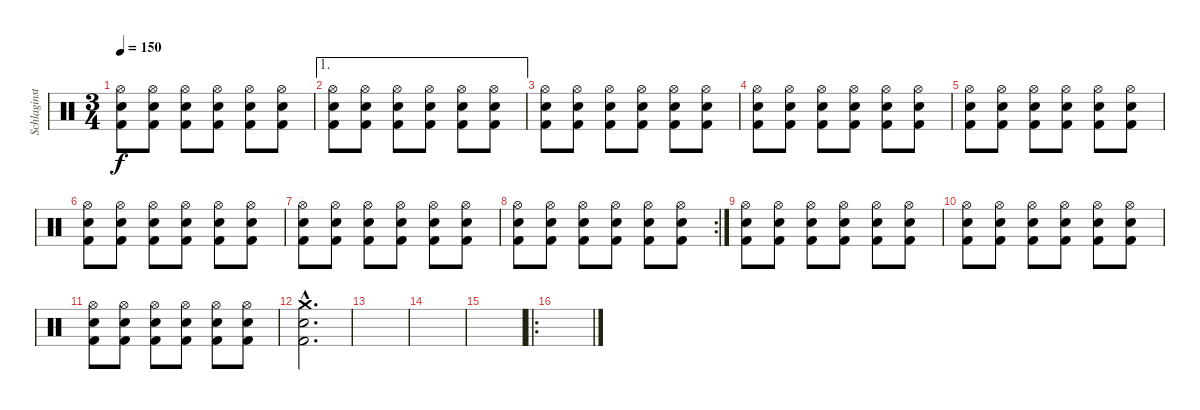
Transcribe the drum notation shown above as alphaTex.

\track ("Schlaginstrumente - Auswahl" "Schlaginst") {instrument percussion}
\staff {score}
\articulation defaults
\ts (3 4)
\tempo 150
\clef neutral
\ks c
("Hi-Hat (open)" "Electric Snare (hit)" "Kick (hit) 2").8{dy f} ("Hi-Hat (open)" "Electric Snare (hit)" "Kick (hit) 2").8 ("Hi-Hat (open)" "Electric Snare (hit)" "Kick (hit) 2").8 ("Hi-Hat (open)" "Electric Snare (hit)" "Kick (hit) 2").8 ("Hi-Hat (open)" "Electric Snare (hit)" "Kick (hit) 2").8 ("Hi-Hat (open)" "Electric Snare (hit)" "Kick (hit) 2").8 |
\ae 1
("Hi-Hat (open)" "Electric Snare (hit)" "Kick (hit) 2").8 ("Hi-Hat (open)" "Electric Snare (hit)" "Kick (hit) 2").8 ("Hi-Hat (open)" "Electric Snare (hit)" "Kick (hit) 2").8 ("Hi-Hat (open)" "Electric Snare (hit)" "Kick (hit) 2").8 ("Hi-Hat (open)" "Electric Snare (hit)" "Kick (hit) 2").8 ("Hi-Hat (open)" "Electric Snare (hit)" "Kick (hit) 2").8 |
("Hi-Hat (open)" "Electric Snare (hit)" "Kick (hit) 2").8 ("Hi-Hat (open)" "Electric Snare (hit)" "Kick (hit) 2").8 ("Hi-Hat (open)" "Electric Snare (hit)" "Kick (hit) 2").8 ("Hi-Hat (open)" "Electric Snare (hit)" "Kick (hit) 2").8 ("Hi-Hat (open)" "Electric Snare (hit)" "Kick (hit) 2").8 ("Hi-Hat (open)" "Electric Snare (hit)" "Kick (hit) 2").8 |
("Hi-Hat (open)" "Electric Snare (hit)" "Kick (hit) 2").8 ("Hi-Hat (open)" "Electric Snare (hit)" "Kick (hit) 2").8 ("Hi-Hat (open)" "Electric Snare (hit)" "Kick (hit) 2").8 ("Hi-Hat (open)" "Electric Snare (hit)" "Kick (hit) 2").8 ("Hi-Hat (open)" "Electric Snare (hit)" "Kick (hit) 2").8 ("Hi-Hat (open)" "Electric Snare (hit)" "Kick (hit) 2").8 |
("Hi-Hat (open)" "Electric Snare (hit)" "Kick (hit) 2").8 ("Hi-Hat (open)" "Electric Snare (hit)" "Kick (hit) 2").8 ("Hi-Hat (open)" "Electric Snare (hit)" "Kick (hit) 2").8 ("Hi-Hat (open)" "Electric Snare (hit)" "Kick (hit) 2").8 ("Hi-Hat (open)" "Electric Snare (hit)" "Kick (hit) 2").8 ("Hi-Hat (open)" "Electric Snare (hit)" "Kick (hit) 2").8 |
("Hi-Hat (open)" "Electric Snare (hit)" "Kick (hit) 2").8 ("Hi-Hat (open)" "Electric Snare (hit)" "Kick (hit) 2").8 ("Hi-Hat (open)" "Electric Snare (hit)" "Kick (hit) 2").8 ("Hi-Hat (open)" "Electric Snare (hit)" "Kick (hit) 2").8 ("Hi-Hat (open)" "Electric Snare (hit)" "Kick (hit) 2").8 ("Hi-Hat (open)" "Electric Snare (hit)" "Kick (hit) 2").8 |
("Hi-Hat (open)" "Electric Snare (hit)" "Kick (hit) 2").8 ("Hi-Hat (open)" "Electric Snare (hit)" "Kick (hit) 2").8 ("Hi-Hat (open)" "Electric Snare (hit)" "Kick (hit) 2").8 ("Hi-Hat (open)" "Electric Snare (hit)" "Kick (hit) 2").8 ("Hi-Hat (open)" "Electric Snare (hit)" "Kick (hit) 2").8 ("Hi-Hat (open)" "Electric Snare (hit)" "Kick (hit) 2").8 |
\rc 2
("Hi-Hat (open)" "Electric Snare (hit)" "Kick (hit) 2").8 ("Hi-Hat (open)" "Electric Snare (hit)" "Kick (hit) 2").8 ("Hi-Hat (open)" "Electric Snare (hit)" "Kick (hit) 2").8 ("Hi-Hat (open)" "Electric Snare (hit)" "Kick (hit) 2").8 ("Hi-Hat (open)" "Electric Snare (hit)" "Kick (hit) 2").8 ("Hi-Hat (open)" "Electric Snare (hit)" "Kick (hit) 2").8 |
("Hi-Hat (open)" "Electric Snare (hit)" "Kick (hit) 2").8 ("Hi-Hat (open)" "Electric Snare (hit)" "Kick (hit) 2").8 ("Hi-Hat (open)" "Electric Snare (hit)" "Kick (hit) 2").8 ("Hi-Hat (open)" "Electric Snare (hit)" "Kick (hit) 2").8 ("Hi-Hat (open)" "Electric Snare (hit)" "Kick (hit) 2").8 ("Hi-Hat (open)" "Electric Snare (hit)" "Kick (hit) 2").8 |
("Hi-Hat (open)" "Electric Snare (hit)" "Kick (hit) 2").8 ("Hi-Hat (open)" "Electric Snare (hit)" "Kick (hit) 2").8 ("Hi-Hat (open)" "Electric Snare (hit)" "Kick (hit) 2").8 ("Hi-Hat (open)" "Electric Snare (hit)" "Kick (hit) 2").8 ("Hi-Hat (open)" "Electric Snare (hit)" "Kick (hit) 2").8 ("Hi-Hat (open)" "Electric Snare (hit)" "Kick (hit) 2").8 |
("Hi-Hat (open)" "Electric Snare (hit)" "Kick (hit) 2").8 ("Hi-Hat (open)" "Electric Snare (hit)" "Kick (hit) 2").8 ("Hi-Hat (open)" "Electric Snare (hit)" "Kick (hit) 2").8 ("Hi-Hat (open)" "Electric Snare (hit)" "Kick (hit) 2").8 ("Hi-Hat (open)" "Electric Snare (hit)" "Kick (hit) 2").8 ("Hi-Hat (open)" "Electric Snare (hit)" "Kick (hit) 2").8 |
("Crash medium (hit)"{hac} "Electric Snare (hit)"{hac} "Kick (hit) 2"{hac}).2{d} |
|
|
|
\ro
